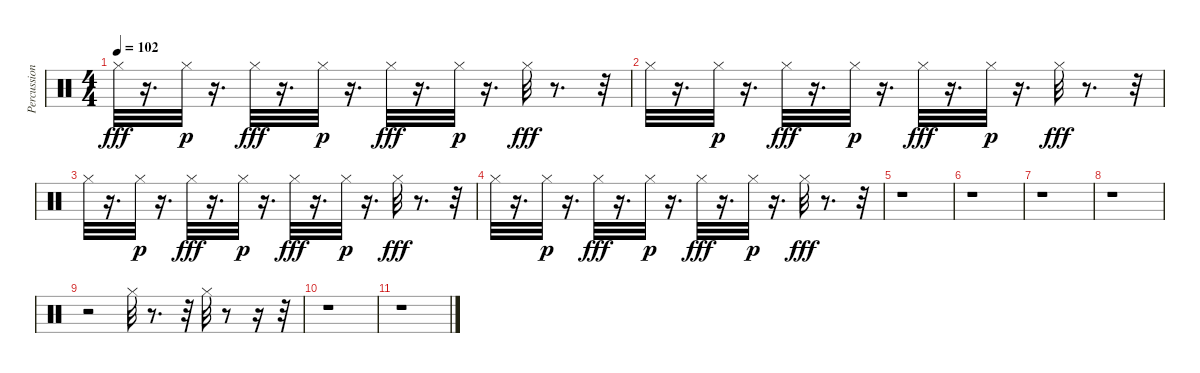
\track ("Percussion" "Percussion") {instrument percussion}
\staff {score}
\articulation defaults
\ts (4 4)
\tempo 102
\clef neutral
\ks c "Hi-Hat (closed)".32{dy fff}
r.16{d} "Hi-Hat (closed)".32{dy p} r.16{d} "Hi-Hat (closed)".32{dy fff} r.16{d} "Hi-Hat (closed)".32{dy p} r.16{d} "Hi-Hat (closed)".32{dy fff} r.16{d} "Hi-Hat (closed)".32{dy p} r.16{d} "Hi-Hat (closed)".32{dy fff} r.8{d} r.32 |
"Hi-Hat (closed)".32 r.16{d} "Hi-Hat (closed)".32{dy p} r.16{d} "Hi-Hat (closed)".32{dy fff} r.16{d} "Hi-Hat (closed)".32{dy p} r.16{d} "Hi-Hat (closed)".32{dy fff} r.16{d} "Hi-Hat (closed)".32{dy p} r.16{d} "Hi-Hat (closed)".32{dy fff} r.8{d} r.32 |
"Hi-Hat (closed)".32 r.16{d} "Hi-Hat (closed)".32{dy p} r.16{d} "Hi-Hat (closed)".32{dy fff} r.16{d} "Hi-Hat (closed)".32{dy p} r.16{d} "Hi-Hat (closed)".32{dy fff} r.16{d} "Hi-Hat (closed)".32{dy p} r.16{d} "Hi-Hat (closed)".32{dy fff} r.8{d} r.32 |
"Hi-Hat (closed)".32 r.16{d} "Hi-Hat (closed)".32{dy p} r.16{d} "Hi-Hat (closed)".32{dy fff} r.16{d} "Hi-Hat (closed)".32{dy p} r.16{d} "Hi-Hat (closed)".32{dy fff} r.16{d} "Hi-Hat (closed)".32{dy p} r.16{d} "Hi-Hat (closed)".32{dy fff} r.8{d} r.32 |
r.1 |
r.1 |
r.1 |
r.1 |
r.2 "Hi-Hat (closed)".32 r.8{d} r.32 "Hi-Hat (closed)".32 r.8 r.16 r.32 |
r.1 |
r.1
